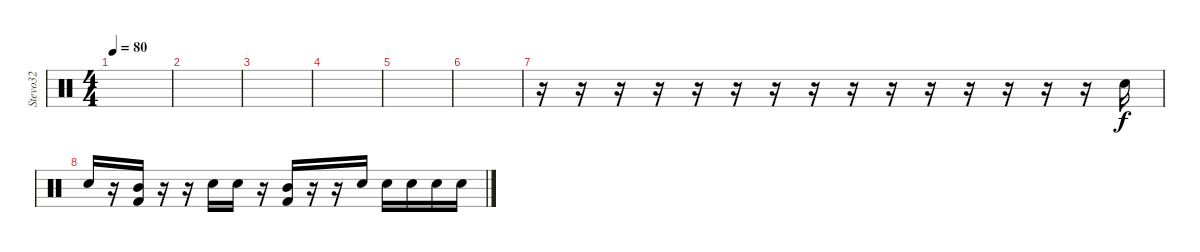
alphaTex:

\track ("Stevo32" "Stevo32") {instrument percussion}
\staff {score}
\articulation defaults
\ts (4 4)
\tempo 80
\clef neutral
\ks c
|
|
|
|
|
|
r.16 r.16 r.16 r.16 r.16 r.16 r.16 r.16 r.16 r.16 r.16 r.16 r.16 r.16 r.16 "Snare (hit) 2".16 |
"Snare (hit) 2".16 r.16 ("Mid Tom (hit)" "Kick (hit) 2").16 r.16 r.16 "Snare (hit) 2".16 "Snare (hit) 2".16 r.16 ("Mid Tom (hit)" "Kick (hit) 2").16 r.16 r.16 "Snare (hit) 2".16 "Snare (hit) 2".16 "Snare (hit) 2".16 "Snare (hit) 2".16 "Snare (hit) 2".16
